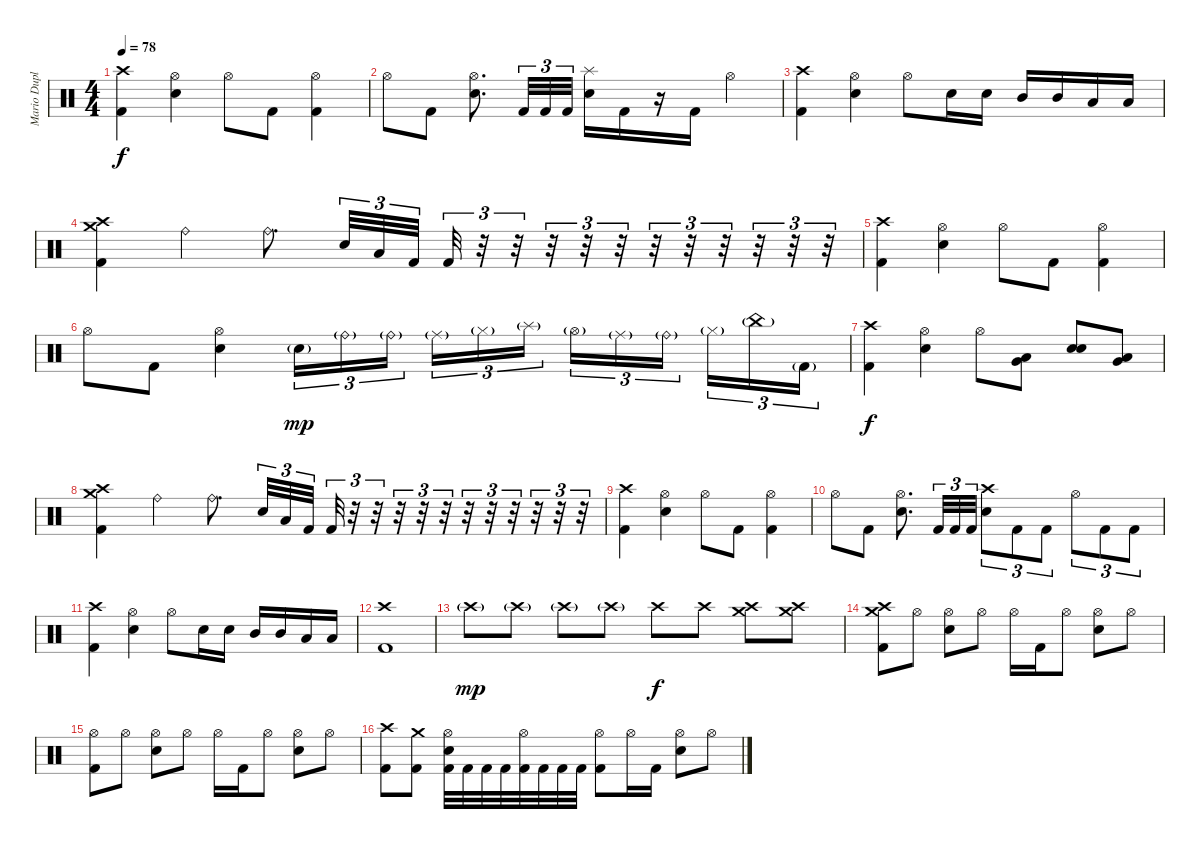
\track ("Mario Duplantier " "Mario Dupl") {instrument percussion}
\staff {score}
\articulation defaults
\ts (4 4)
\tempo 78
\clef neutral
\ks c
("Crash high (hit)" "Kick (hit) 2").4{dy f} ("Hi-Hat (open)" "Electric Snare (hit)").4 "Hi-Hat (open)".8 "Kick (hit) 2".8 ("Hi-Hat (open)" "Kick (hit) 2").4 |
"Hi-Hat (open)".8 "Kick (hit) 2".8 ("Hi-Hat (open)" "Electric Snare (hit)").8{d} "Kick (hit) 2".32{tu (3 2)} "Kick (hit) 2".32{tu (3 2)} "Kick (hit) 2".32{tu (3 2)} ("Splash (hit)" "Electric Snare (hit)").16 "Kick (hit) 2".16 r.16 "Kick (hit) 2".16 "Hi-Hat (open)".4 |
("Crash high (hit)" "Kick (hit) 2").4 ("Hi-Hat (open)" "Electric Snare (hit)").4 "Hi-Hat (open)".8 "Electric Snare (hit)".16 "Electric Snare (hit)".16 "Mid Tom (hit)".16 "Mid Tom (hit)".16 "Low Tom (hit)".16 "Low Tom (hit)".16 |
("Crash medium (hit)" "Kick (hit) 2" "Crash high (hit)").4 "Ride (bell)".4 "Ride (bell)".8{d} "Electric Snare (hit)".32{tu (3 2)} "Low Tom (hit)".32{tu (3 2)} "Kick (hit) 2".32{tu (3 2)} "Kick (hit) 2".32{tu (3 2)} r.32{tu (3 2)} r.32{tu (3 2)} r.32{tu (3 2)} r.32{tu (3 2)} r.32{tu (3 2)} r.32{tu (3 2)} r.32{tu (3 2)} r.32{tu (3 2)} r.32{tu (3 2)} r.32{tu (3 2)} r.32{tu (3 2)} |
("Crash high (hit)" "Kick (hit) 2").4 ("Hi-Hat (open)" "Electric Snare (hit)").4 "Hi-Hat (open)".8 "Kick (hit) 2".8 ("Hi-Hat (open)" "Kick (hit) 2").4 |
"Hi-Hat (open)".8 "Kick (hit) 2".8 ("Hi-Hat (open)" "Electric Snare (hit)").4 "Electric Snare (hit)"{g}.16{tu (3 2) dy mp} "Ride (bell)"{g}.16{tu (3 2)} "Ride (bell)"{g}.16{tu (3 2) beam splitsecondary} "Ride (middle)"{g}.16{tu (3 2)} "Hi-Hat (closed)"{g}.16{tu (3 2)} "Splash (hit)"{g}.16{tu (3 2)} "Hi-Hat (open)"{g}.16{tu (3 2)} "Ride (middle)"{g}.16{tu (3 2)} "Ride (bell)"{g}.16{tu (3 2) beam splitsecondary} "Hi-Hat (closed)"{g}.16{tu (3 2)} "China (hit)"{g}.16{tu (3 2)} "Kick (hit) 2"{g}.16{tu (3 2)} |
("Crash high (hit)" "Kick (hit) 2").4{dy f} ("Hi-Hat (open)" "Electric Snare (hit)").4 "Hi-Hat (open)".8 ("Low Tom (hit)" "Very Low Tom (hit)").8 ("Electric Snare (hit)" "Electric Snare (hit)").8 ("Low Tom (hit)" "Very Low Tom (hit)").8 |
("Crash medium (hit)" "Kick (hit) 2" "Crash high (hit)").4 "Ride (bell)".4 "Ride (bell)".8{d} "Electric Snare (hit)".32{tu (3 2)} "Low Tom (hit)".32{tu (3 2)} "Kick (hit) 2".32{tu (3 2)} "Kick (hit) 2".32{tu (3 2)} r.32{tu (3 2)} r.32{tu (3 2)} r.32{tu (3 2)} r.32{tu (3 2)} r.32{tu (3 2)} r.32{tu (3 2)} r.32{tu (3 2)} r.32{tu (3 2)} r.32{tu (3 2)} r.32{tu (3 2)} r.32{tu (3 2)} |
("Crash high (hit)" "Kick (hit) 2").4 ("Hi-Hat (open)" "Electric Snare (hit)").4 "Hi-Hat (open)".8 "Kick (hit) 2".8 ("Hi-Hat (open)" "Kick (hit) 2").4 |
"Hi-Hat (open)".8 "Kick (hit) 2".8 ("Hi-Hat (open)" "Electric Snare (hit)").8{d} "Kick (hit) 2".32{tu (3 2)} "Kick (hit) 2".32{tu (3 2)} "Kick (hit) 2".32{tu (3 2)} ("Crash high (hit)" "Electric Snare (hit)").8{tu (3 2)} "Kick (hit) 2".8{tu (3 2)} "Kick (hit) 2".8{tu (3 2)} "Hi-Hat (open)".8{tu (3 2)} "Kick (hit) 2".8{tu (3 2)} "Kick (hit) 2".8{tu (3 2)} |
("Crash high (hit)" "Kick (hit) 2").4 ("Hi-Hat (open)" "Electric Snare (hit)").4 "Hi-Hat (open)".8 "Electric Snare (hit)".16 "Electric Snare (hit)".16 "Mid Tom (hit)".16 "Mid Tom (hit)".16 "Low Tom (hit)".16 "Low Tom (hit)".16 |
("Crash high (hit)" "Kick (hit) 2").1 |
"Crash high (hit)"{g}.8{dy mp} "Crash high (hit)"{g}.8 "Crash high (hit)"{g}.8 "Crash high (hit)"{g}.8 "Crash high (hit)".8{dy f} "Crash high (hit)".8 ("Crash medium (hit)" "Crash high (hit)").8 ("Crash medium (hit)" "Crash high (hit)").8 |
("Crash medium (hit)" "Kick (hit) 2" "Crash high (hit)").8 "Hi-Hat (open)".8 ("Hi-Hat (open)" "Electric Snare (hit)").8 "Hi-Hat (open)".8 "Hi-Hat (open)".16 "Kick (hit) 2".16 "Hi-Hat (open)".8 ("Electric Snare (hit)" "Hi-Hat (open)").8 "Hi-Hat (open)".8 |
("Kick (hit) 2" "Hi-Hat (open)").8 "Hi-Hat (open)".8 ("Hi-Hat (open)" "Electric Snare (hit)").8 "Hi-Hat (open)".8 "Hi-Hat (open)".16 "Kick (hit) 2".16 "Hi-Hat (open)".8 ("Electric Snare (hit)" "Hi-Hat (open)").8 "Hi-Hat (open)".8 |
("Crash high (hit)" "Kick (hit) 2").8 ("Crash medium (hit)" "Kick (hit) 2").8 ("Hi-Hat (open)" "Electric Snare (hit)" "Kick (hit) 2").32 "Kick (hit) 2".32 "Kick (hit) 2".32 "Kick (hit) 2".32 ("Hi-Hat (open)" "Kick (hit) 2").32 "Kick (hit) 2".32 "Kick (hit) 2".32 "Kick (hit) 2".32 ("Hi-Hat (open)" "Kick (hit) 2").8 "Hi-Hat (open)".16 "Kick (hit) 2".16 ("Hi-Hat (open)" "Electric Snare (hit)").8 "Hi-Hat (open)".8
